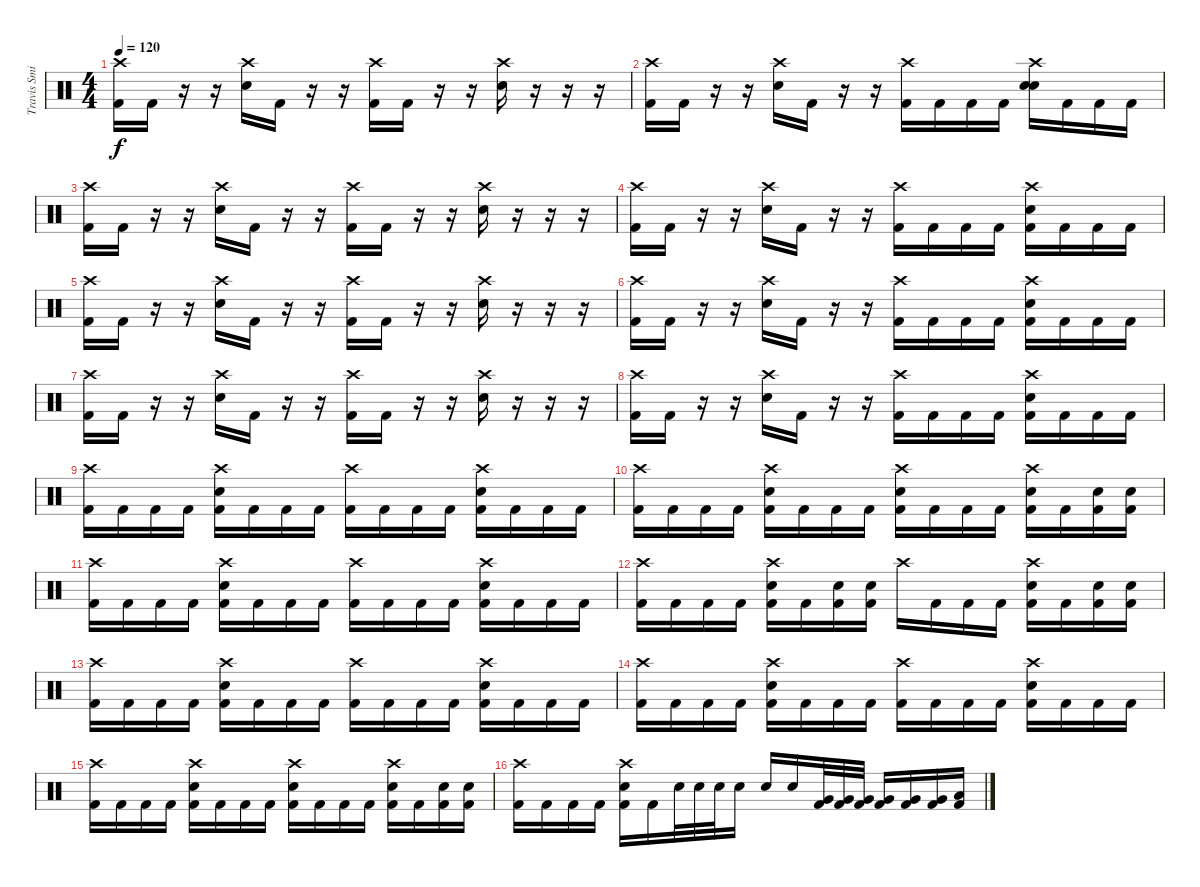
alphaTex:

\track ("Travis Smith" "Travis Smi") {instrument percussion}
\staff {score}
\articulation defaults
\ts (4 4)
\tempo 120
\clef neutral
\ks c
("Crash high (hit)" "Kick (hit) 2").16{dy f} "Kick (hit) 2".16 r.16 r.16 ("Crash high (hit)" "Electric Snare (hit)").16 "Kick (hit) 2".16 r.16 r.16 ("Crash high (hit)" "Kick (hit) 2").16 "Kick (hit) 2".16 r.16 r.16 ("Crash high (hit)" "Electric Snare (hit)").16 r.16 r.16 r.16 |
("Crash high (hit)" "Kick (hit) 2").16 "Kick (hit) 2".16 r.16 r.16 ("Crash high (hit)" "Electric Snare (hit)").16 "Kick (hit) 2".16 r.16 r.16 ("Crash high (hit)" "Kick (hit) 2").16 "Kick (hit) 2".16 "Kick (hit) 2".16 "Kick (hit) 2".16 ("Crash high (hit)" "Electric Snare (hit)" "Snare (hit)").16 "Kick (hit) 2".16 "Kick (hit) 2".16 "Kick (hit) 2".16 |
("Crash high (hit)" "Kick (hit) 2").16 "Kick (hit) 2".16 r.16 r.16 ("Crash high (hit)" "Electric Snare (hit)").16 "Kick (hit) 2".16 r.16 r.16 ("Crash high (hit)" "Kick (hit) 2").16 "Kick (hit) 2".16 r.16 r.16 ("Crash high (hit)" "Electric Snare (hit)").16 r.16 r.16 r.16 |
("Crash high (hit)" "Kick (hit) 2").16 "Kick (hit) 2".16 r.16 r.16 ("Crash high (hit)" "Electric Snare (hit)").16 "Kick (hit) 2".16 r.16 r.16 ("Crash high (hit)" "Kick (hit) 2").16 "Kick (hit) 2".16 "Kick (hit) 2".16 "Kick (hit) 2".16 ("Crash high (hit)" "Electric Snare (hit)" "Kick (hit) 2").16 "Kick (hit) 2".16 "Kick (hit) 2".16 "Kick (hit) 2".16 |
("Crash high (hit)" "Kick (hit) 2").16 "Kick (hit) 2".16 r.16 r.16 ("Crash high (hit)" "Electric Snare (hit)").16 "Kick (hit) 2".16 r.16 r.16 ("Crash high (hit)" "Kick (hit) 2").16 "Kick (hit) 2".16 r.16 r.16 ("Crash high (hit)" "Electric Snare (hit)").16 r.16 r.16 r.16 |
("Crash high (hit)" "Kick (hit) 2").16 "Kick (hit) 2".16 r.16 r.16 ("Crash high (hit)" "Electric Snare (hit)").16 "Kick (hit) 2".16 r.16 r.16 ("Crash high (hit)" "Kick (hit) 2").16 "Kick (hit) 2".16 "Kick (hit) 2".16 "Kick (hit) 2".16 ("Crash high (hit)" "Electric Snare (hit)" "Kick (hit) 2").16 "Kick (hit) 2".16 "Kick (hit) 2".16 "Kick (hit) 2".16 |
("Crash high (hit)" "Kick (hit) 2").16 "Kick (hit) 2".16 r.16 r.16 ("Crash high (hit)" "Electric Snare (hit)").16 "Kick (hit) 2".16 r.16 r.16 ("Crash high (hit)" "Kick (hit) 2").16 "Kick (hit) 2".16 r.16 r.16 ("Crash high (hit)" "Electric Snare (hit)").16 r.16 r.16 r.16 |
("Crash high (hit)" "Kick (hit) 2").16 "Kick (hit) 2".16 r.16 r.16 ("Crash high (hit)" "Electric Snare (hit)").16 "Kick (hit) 2".16 r.16 r.16 ("Crash high (hit)" "Kick (hit) 2").16 "Kick (hit) 2".16 "Kick (hit) 2".16 "Kick (hit) 2".16 ("Crash high (hit)" "Electric Snare (hit)" "Kick (hit) 2").16 "Kick (hit) 2".16 "Kick (hit) 2".16 "Kick (hit) 2".16 |
("Crash high (hit)" "Kick (hit) 2").16 "Kick (hit) 2".16 "Kick (hit) 2".16 "Kick (hit) 2".16 ("Crash high (hit)" "Electric Snare (hit)" "Kick (hit) 2").16 "Kick (hit) 2".16 "Kick (hit) 2".16 "Kick (hit) 2".16 ("Crash high (hit)" "Kick (hit) 2").16 "Kick (hit) 2".16 "Kick (hit) 2".16 "Kick (hit) 2".16 ("Crash high (hit)" "Electric Snare (hit)" "Kick (hit) 2").16 "Kick (hit) 2".16 "Kick (hit) 2".16 "Kick (hit) 2".16 |
("Crash high (hit)" "Kick (hit) 2").16 "Kick (hit) 2".16 "Kick (hit) 2".16 "Kick (hit) 2".16 ("Crash high (hit)" "Electric Snare (hit)" "Kick (hit) 2").16 "Kick (hit) 2".16 "Kick (hit) 2".16 "Kick (hit) 2".16 ("Crash high (hit)" "Electric Snare (hit)" "Kick (hit) 2").16 "Kick (hit) 2".16 "Kick (hit) 2".16 "Kick (hit) 2".16 ("Crash high (hit)" "Electric Snare (hit)" "Kick (hit) 2").16 "Kick (hit) 2".16 ("Electric Snare (hit)" "Kick (hit) 2").16 ("Electric Snare (hit)" "Kick (hit) 2").16 |
("Crash high (hit)" "Kick (hit) 2").16 "Kick (hit) 2".16 "Kick (hit) 2".16 "Kick (hit) 2".16 ("Crash high (hit)" "Electric Snare (hit)" "Kick (hit) 2").16 "Kick (hit) 2".16 "Kick (hit) 2".16 "Kick (hit) 2".16 ("Crash high (hit)" "Kick (hit) 2").16 "Kick (hit) 2".16 "Kick (hit) 2".16 "Kick (hit) 2".16 ("Crash high (hit)" "Electric Snare (hit)" "Kick (hit) 2").16 "Kick (hit) 2".16 "Kick (hit) 2".16 "Kick (hit) 2".16 |
("Crash high (hit)" "Kick (hit) 2").16 "Kick (hit) 2".16 "Kick (hit) 2".16 "Kick (hit) 2".16 ("Crash high (hit)" "Electric Snare (hit)" "Kick (hit) 2").16 "Kick (hit) 2".16 ("Electric Snare (hit)" "Kick (hit) 2").16 ("Electric Snare (hit)" "Kick (hit) 2").16 "Crash high (hit)".16 "Kick (hit) 2".16 "Kick (hit) 2".16 "Kick (hit) 2".16 ("Crash high (hit)" "Electric Snare (hit)" "Kick (hit) 2").16 "Kick (hit) 2".16 ("Electric Snare (hit)" "Kick (hit) 2").16 ("Electric Snare (hit)" "Kick (hit) 2").16 |
("Crash high (hit)" "Kick (hit) 2").16 "Kick (hit) 2".16 "Kick (hit) 2".16 "Kick (hit) 2".16 ("Crash high (hit)" "Electric Snare (hit)" "Kick (hit) 2").16 "Kick (hit) 2".16 "Kick (hit) 2".16 "Kick (hit) 2".16 ("Crash high (hit)" "Kick (hit) 2").16 "Kick (hit) 2".16 "Kick (hit) 2".16 "Kick (hit) 2".16 ("Crash high (hit)" "Electric Snare (hit)" "Kick (hit) 2").16 "Kick (hit) 2".16 "Kick (hit) 2".16 "Kick (hit) 2".16 |
("Crash high (hit)" "Kick (hit) 2").16 "Kick (hit) 2".16 "Kick (hit) 2".16 "Kick (hit) 2".16 ("Crash high (hit)" "Electric Snare (hit)" "Kick (hit) 2").16 "Kick (hit) 2".16 "Kick (hit) 2".16 "Kick (hit) 2".16 ("Crash high (hit)" "Kick (hit) 2").16 "Kick (hit) 2".16 "Kick (hit) 2".16 "Kick (hit) 2".16 ("Crash high (hit)" "Electric Snare (hit)" "Kick (hit) 2").16 "Kick (hit) 2".16 "Kick (hit) 2".16 "Kick (hit) 2".16 |
("Crash high (hit)" "Kick (hit) 2").16 "Kick (hit) 2".16 "Kick (hit) 2".16 "Kick (hit) 2".16 ("Crash high (hit)" "Electric Snare (hit)" "Kick (hit) 2").16 "Kick (hit) 2".16 "Kick (hit) 2".16 "Kick (hit) 2".16 ("Crash high (hit)" "Electric Snare (hit)" "Kick (hit) 2").16 "Kick (hit) 2".16 "Kick (hit) 2".16 "Kick (hit) 2".16 ("Crash high (hit)" "Electric Snare (hit)" "Kick (hit) 2").16 "Kick (hit) 2".16 ("Electric Snare (hit)" "Kick (hit) 2").16 ("Electric Snare (hit)" "Kick (hit) 2").16 |
("Crash high (hit)" "Kick (hit) 2").16 "Kick (hit) 2".16 "Kick (hit) 2".16 "Kick (hit) 2".16 ("Crash high (hit)" "Electric Snare (hit)" "Kick (hit) 2").16 "Kick (hit) 2".16 "Electric Snare (hit)".32 "Electric Snare (hit)".32 "Electric Snare (hit)".32 "Electric Snare (hit)".16 "Electric Snare (hit)".16 "Electric Snare (hit)".16 ("Very Low Tom (hit)" "Kick (hit) 2").32 ("Very Low Tom (hit)" "Kick (hit) 2").32 ("Very Low Tom (hit)" "Kick (hit) 2").32 ("Very Low Tom (hit)" "Kick (hit) 2").16 ("Very Low Tom (hit)" "Kick (hit) 2").16 ("Very Low Tom (hit)" "Kick (hit) 2").16 ("Low Floor Tom (hit)" "Kick (hit) 2").16
